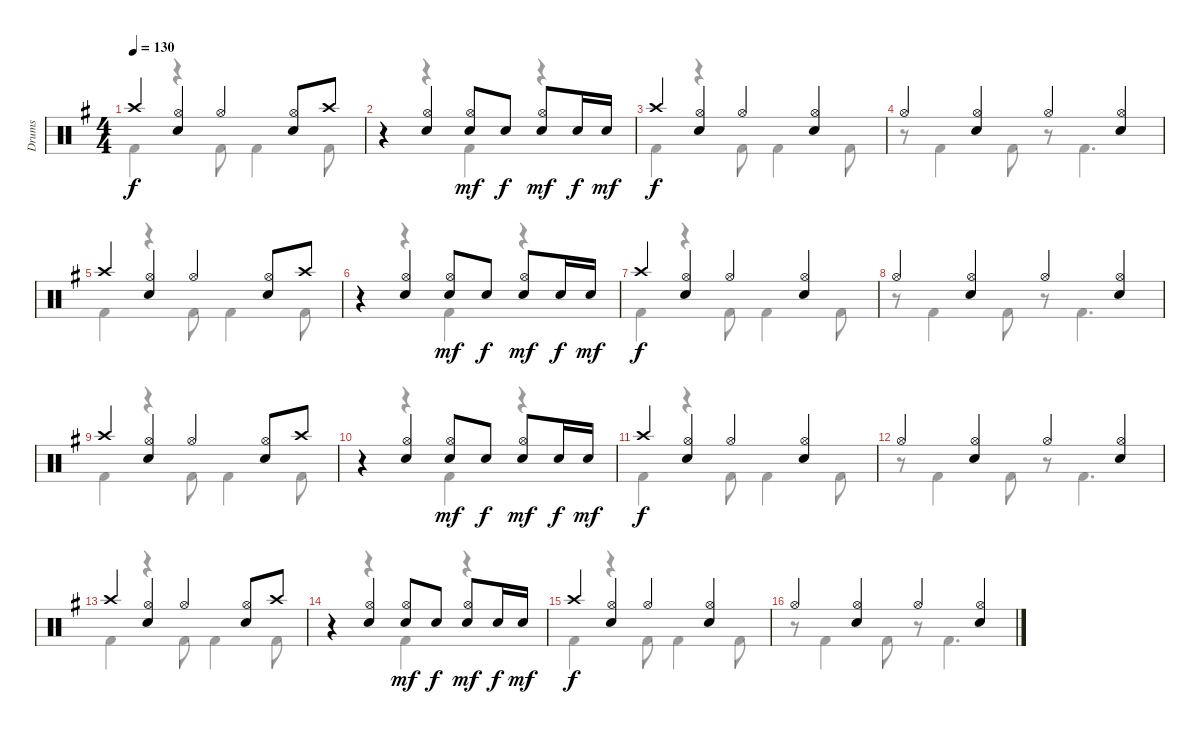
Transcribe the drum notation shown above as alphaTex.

\track ("Drums" "Drums") {instrument percussion}
\staff {score}
\articulation defaults
\voice
\ts (4 4)
\tempo 130
\clef neutral
\ks g "Crash high (hit)".4{dy f}
("Hi-Hat (open)" "Electric Snare (hit)").4 "Hi-Hat (open)".4 ("Hi-Hat (open)" "Electric Snare (hit)").8 "Crash high (hit)".8 |
r.4 ("Hi-Hat (open)" "Electric Snare (hit)").4 ("Hi-Hat (open)" "Electric Snare (hit)").8{dy mf} "Electric Snare (hit)".8{dy f} ("Hi-Hat (open)" "Electric Snare (hit)").8{dy mf} "Electric Snare (hit)".16{dy f} "Electric Snare (hit)".16{dy mf} |
"Crash high (hit)".4{dy f} ("Hi-Hat (open)" "Electric Snare (hit)").4 "Hi-Hat (open)".4 ("Hi-Hat (open)" "Electric Snare (hit)").4 |
"Hi-Hat (open)".4 ("Hi-Hat (open)" "Electric Snare (hit)").4 "Hi-Hat (open)".4 ("Hi-Hat (open)" "Electric Snare (hit)").4 |
"Crash high (hit)".4 ("Hi-Hat (open)" "Electric Snare (hit)").4 "Hi-Hat (open)".4 ("Hi-Hat (open)" "Electric Snare (hit)").8 "Crash high (hit)".8 |
r.4 ("Hi-Hat (open)" "Electric Snare (hit)").4 ("Hi-Hat (open)" "Electric Snare (hit)").8{dy mf} "Electric Snare (hit)".8{dy f} ("Hi-Hat (open)" "Electric Snare (hit)").8{dy mf} "Electric Snare (hit)".16{dy f} "Electric Snare (hit)".16{dy mf} |
"Crash high (hit)".4{dy f} ("Hi-Hat (open)" "Electric Snare (hit)").4 "Hi-Hat (open)".4 ("Hi-Hat (open)" "Electric Snare (hit)").4 |
"Hi-Hat (open)".4 ("Hi-Hat (open)" "Electric Snare (hit)").4 "Hi-Hat (open)".4 ("Hi-Hat (open)" "Electric Snare (hit)").4 |
"Crash high (hit)".4 ("Hi-Hat (open)" "Electric Snare (hit)").4 "Hi-Hat (open)".4 ("Hi-Hat (open)" "Electric Snare (hit)").8 "Crash high (hit)".8 |
r.4 ("Hi-Hat (open)" "Electric Snare (hit)").4 ("Hi-Hat (open)" "Electric Snare (hit)").8{dy mf} "Electric Snare (hit)".8{dy f} ("Hi-Hat (open)" "Electric Snare (hit)").8{dy mf} "Electric Snare (hit)".16{dy f} "Electric Snare (hit)".16{dy mf} |
"Crash high (hit)".4{dy f} ("Hi-Hat (open)" "Electric Snare (hit)").4 "Hi-Hat (open)".4 ("Hi-Hat (open)" "Electric Snare (hit)").4 |
"Hi-Hat (open)".4 ("Hi-Hat (open)" "Electric Snare (hit)").4 "Hi-Hat (open)".4 ("Hi-Hat (open)" "Electric Snare (hit)").4 |
"Crash high (hit)".4 ("Hi-Hat (open)" "Electric Snare (hit)").4 "Hi-Hat (open)".4 ("Hi-Hat (open)" "Electric Snare (hit)").8 "Crash high (hit)".8 |
r.4 ("Hi-Hat (open)" "Electric Snare (hit)").4 ("Hi-Hat (open)" "Electric Snare (hit)").8{dy mf} "Electric Snare (hit)".8{dy f} ("Hi-Hat (open)" "Electric Snare (hit)").8{dy mf} "Electric Snare (hit)".16{dy f} "Electric Snare (hit)".16{dy mf} |
"Crash high (hit)".4{dy f} ("Hi-Hat (open)" "Electric Snare (hit)").4 "Hi-Hat (open)".4 ("Hi-Hat (open)" "Electric Snare (hit)").4 |
"Hi-Hat (open)".4 ("Hi-Hat (open)" "Electric Snare (hit)").4 "Hi-Hat (open)".4 ("Hi-Hat (open)" "Electric Snare (hit)").4
\voice
\clef neutral
\ottava regular
\simile none
\ks g "Kick (hit) 2".4{dy f}
r.4 "Kick (hit) 2".8 "Kick (hit) 2".4 "Kick (hit) 2".8 |
r.4 r.4 "Kick (hit) 2".4{dy mf} r.4 |
"Kick (hit) 2".4{dy f} r.4 "Kick (hit) 2".8 "Kick (hit) 2".4 "Kick (hit) 2".8 |
r.8 "Kick (hit) 2".4 "Kick (hit) 2".8 r.8 "Kick (hit) 2".4{d} |
"Kick (hit) 2".4 r.4 "Kick (hit) 2".8 "Kick (hit) 2".4 "Kick (hit) 2".8 |
r.4 r.4 "Kick (hit) 2".4{dy mf} r.4 |
"Kick (hit) 2".4{dy f} r.4 "Kick (hit) 2".8 "Kick (hit) 2".4 "Kick (hit) 2".8 |
r.8 "Kick (hit) 2".4 "Kick (hit) 2".8 r.8 "Kick (hit) 2".4{d} |
"Kick (hit) 2".4 r.4 "Kick (hit) 2".8 "Kick (hit) 2".4 "Kick (hit) 2".8 |
r.4 r.4 "Kick (hit) 2".4{dy mf} r.4 |
"Kick (hit) 2".4{dy f} r.4 "Kick (hit) 2".8 "Kick (hit) 2".4 "Kick (hit) 2".8 |
r.8 "Kick (hit) 2".4 "Kick (hit) 2".8 r.8 "Kick (hit) 2".4{d} |
"Kick (hit) 2".4 r.4 "Kick (hit) 2".8 "Kick (hit) 2".4 "Kick (hit) 2".8 |
r.4 r.4 "Kick (hit) 2".4{dy mf} r.4 |
"Kick (hit) 2".4{dy f} r.4 "Kick (hit) 2".8 "Kick (hit) 2".4 "Kick (hit) 2".8 |
r.8 "Kick (hit) 2".4 "Kick (hit) 2".8 r.8 "Kick (hit) 2".4{d}
